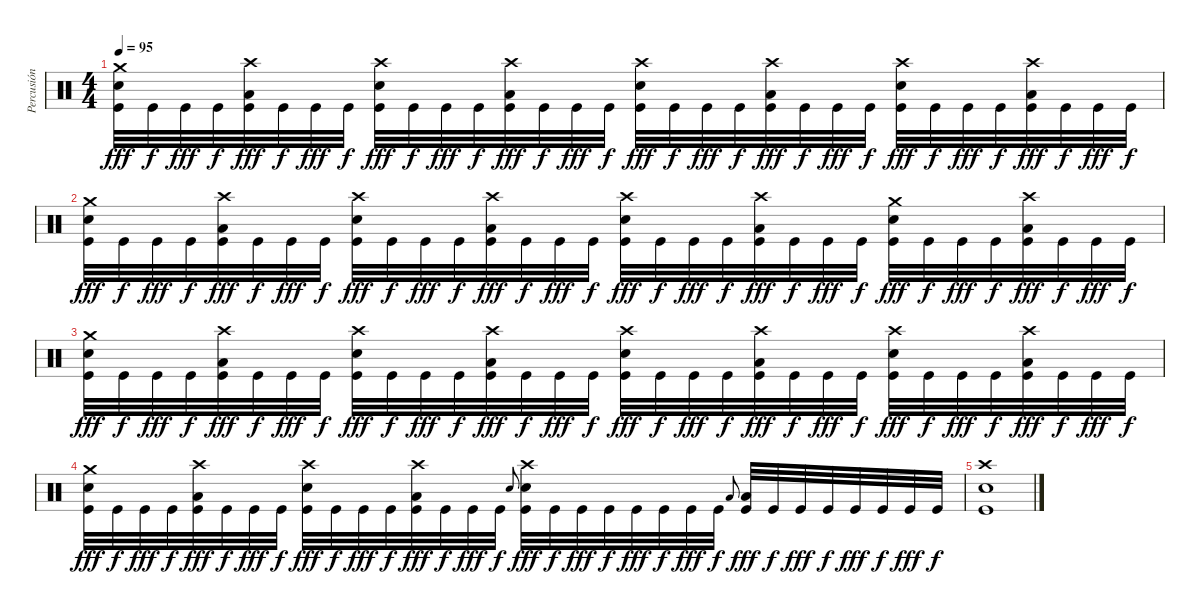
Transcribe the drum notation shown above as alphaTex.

\track ("Percusión" "Percusión") {instrument percussion}
\staff {score}
\articulation defaults
\ts (4 4)
\tempo 95
\clef neutral
\ks c
("Crash medium (hit)" "Snare (hit) 2" "Kick (hit)").32{dy fff} "Kick (hit)".32{dy f} "Kick (hit)".32{dy fff} "Kick (hit)".32{dy f} ("Crash high (hit)" "Low Floor Tom (hit)" "Kick (hit)").32{dy fff} "Kick (hit)".32{dy f} "Kick (hit)".32{dy fff} "Kick (hit)".32{dy f} ("Crash high (hit)" "Snare (hit) 2" "Kick (hit)").32{dy fff} "Kick (hit)".32{dy f} "Kick (hit)".32{dy fff} "Kick (hit)".32{dy f} ("Crash high (hit)" "Low Floor Tom (hit)" "Kick (hit)").32{dy fff} "Kick (hit)".32{dy f} "Kick (hit)".32{dy fff} "Kick (hit)".32{dy f} ("Crash high (hit)" "Snare (hit) 2" "Kick (hit)").32{dy fff} "Kick (hit)".32{dy f} "Kick (hit)".32{dy fff} "Kick (hit)".32{dy f} ("Crash high (hit)" "Low Floor Tom (hit)" "Kick (hit)").32{dy fff} "Kick (hit)".32{dy f} "Kick (hit)".32{dy fff} "Kick (hit)".32{dy f} ("Crash high (hit)" "Snare (hit) 2" "Kick (hit)").32{dy fff} "Kick (hit)".32{dy f} "Kick (hit)".32{dy fff} "Kick (hit)".32{dy f} ("Crash high (hit)" "Low Floor Tom (hit)" "Kick (hit)").32{dy fff} "Kick (hit)".32{dy f} "Kick (hit)".32{dy fff} "Kick (hit)".32{dy f} |
("Crash medium (hit)" "Snare (hit) 2" "Kick (hit)").32{dy fff} "Kick (hit)".32{dy f} "Kick (hit)".32{dy fff} "Kick (hit)".32{dy f} ("Crash high (hit)" "Low Floor Tom (hit)" "Kick (hit)").32{dy fff} "Kick (hit)".32{dy f} "Kick (hit)".32{dy fff} "Kick (hit)".32{dy f} ("Crash high (hit)" "Snare (hit) 2" "Kick (hit)").32{dy fff} "Kick (hit)".32{dy f} "Kick (hit)".32{dy fff} "Kick (hit)".32{dy f} ("Crash high (hit)" "Low Floor Tom (hit)" "Kick (hit)").32{dy fff} "Kick (hit)".32{dy f} "Kick (hit)".32{dy fff} "Kick (hit)".32{dy f} ("Crash high (hit)" "Snare (hit) 2" "Kick (hit)").32{dy fff} "Kick (hit)".32{dy f} "Kick (hit)".32{dy fff} "Kick (hit)".32{dy f} ("Crash high (hit)" "Low Floor Tom (hit)" "Kick (hit)").32{dy fff} "Kick (hit)".32{dy f} "Kick (hit)".32{dy fff} "Kick (hit)".32{dy f} ("Crash medium (hit)" "Snare (hit) 2" "Kick (hit)").32{dy fff} "Kick (hit)".32{dy f} "Kick (hit)".32{dy fff} "Kick (hit)".32{dy f} ("Crash high (hit)" "Low Floor Tom (hit)" "Kick (hit)").32{dy fff} "Kick (hit)".32{dy f} "Kick (hit)".32{dy fff} "Kick (hit)".32{dy f} |
("Crash medium (hit)" "Snare (hit) 2" "Kick (hit)").32{dy fff} "Kick (hit)".32{dy f} "Kick (hit)".32{dy fff} "Kick (hit)".32{dy f} ("Crash high (hit)" "Low Floor Tom (hit)" "Kick (hit)").32{dy fff} "Kick (hit)".32{dy f} "Kick (hit)".32{dy fff} "Kick (hit)".32{dy f} ("Crash high (hit)" "Snare (hit) 2" "Kick (hit)").32{dy fff} "Kick (hit)".32{dy f} "Kick (hit)".32{dy fff} "Kick (hit)".32{dy f} ("Crash high (hit)" "Low Floor Tom (hit)" "Kick (hit)").32{dy fff} "Kick (hit)".32{dy f} "Kick (hit)".32{dy fff} "Kick (hit)".32{dy f} ("Crash high (hit)" "Snare (hit) 2" "Kick (hit)").32{dy fff} "Kick (hit)".32{dy f} "Kick (hit)".32{dy fff} "Kick (hit)".32{dy f} ("Crash high (hit)" "Low Floor Tom (hit)" "Kick (hit)").32{dy fff} "Kick (hit)".32{dy f} "Kick (hit)".32{dy fff} "Kick (hit)".32{dy f} ("Crash high (hit)" "Snare (hit) 2" "Kick (hit)").32{dy fff} "Kick (hit)".32{dy f} "Kick (hit)".32{dy fff} "Kick (hit)".32{dy f} ("Crash high (hit)" "Low Floor Tom (hit)" "Kick (hit)").32{dy fff} "Kick (hit)".32{dy f} "Kick (hit)".32{dy fff} "Kick (hit)".32{dy f} |
("Crash medium (hit)" "Snare (hit) 2" "Kick (hit)").32{dy fff} "Kick (hit)".32{dy f} "Kick (hit)".32{dy fff} "Kick (hit)".32{dy f} ("Crash high (hit)" "Low Floor Tom (hit)" "Kick (hit)").32{dy fff} "Kick (hit)".32{dy f} "Kick (hit)".32{dy fff} "Kick (hit)".32{dy f} ("Crash high (hit)" "Snare (hit) 2" "Kick (hit)").32{dy fff} "Kick (hit)".32{dy f} "Kick (hit)".32{dy fff} "Kick (hit)".32{dy f} ("Crash high (hit)" "Low Floor Tom (hit)" "Kick (hit)").32{dy fff} "Kick (hit)".32{dy f} "Kick (hit)".32{dy fff} "Kick (hit)".32{dy f} "Snare (hit) 2".8{gr onbeat} ("Crash high (hit)" "Snare (hit) 2" "Kick (hit)").32{dy fff} "Kick (hit)".32{dy f} "Kick (hit)".32{dy fff} "Kick (hit)".32{dy f} "Kick (hit)".32{dy fff} "Kick (hit)".32{dy f} "Kick (hit)".32{dy fff} "Kick (hit)".32{dy f} "Low Floor Tom (hit)".8{gr onbeat} ("Low Floor Tom (hit)" "Kick (hit)").32{dy fff} "Kick (hit)".32{dy f} "Kick (hit)".32{dy fff} "Kick (hit)".32{dy f} "Kick (hit)".32{dy fff} "Kick (hit)".32{dy f} "Kick (hit)".32{dy fff} "Kick (hit)".32{dy f} |
("Crash high (hit)" "Snare (hit) 2" "Kick (hit)").1
